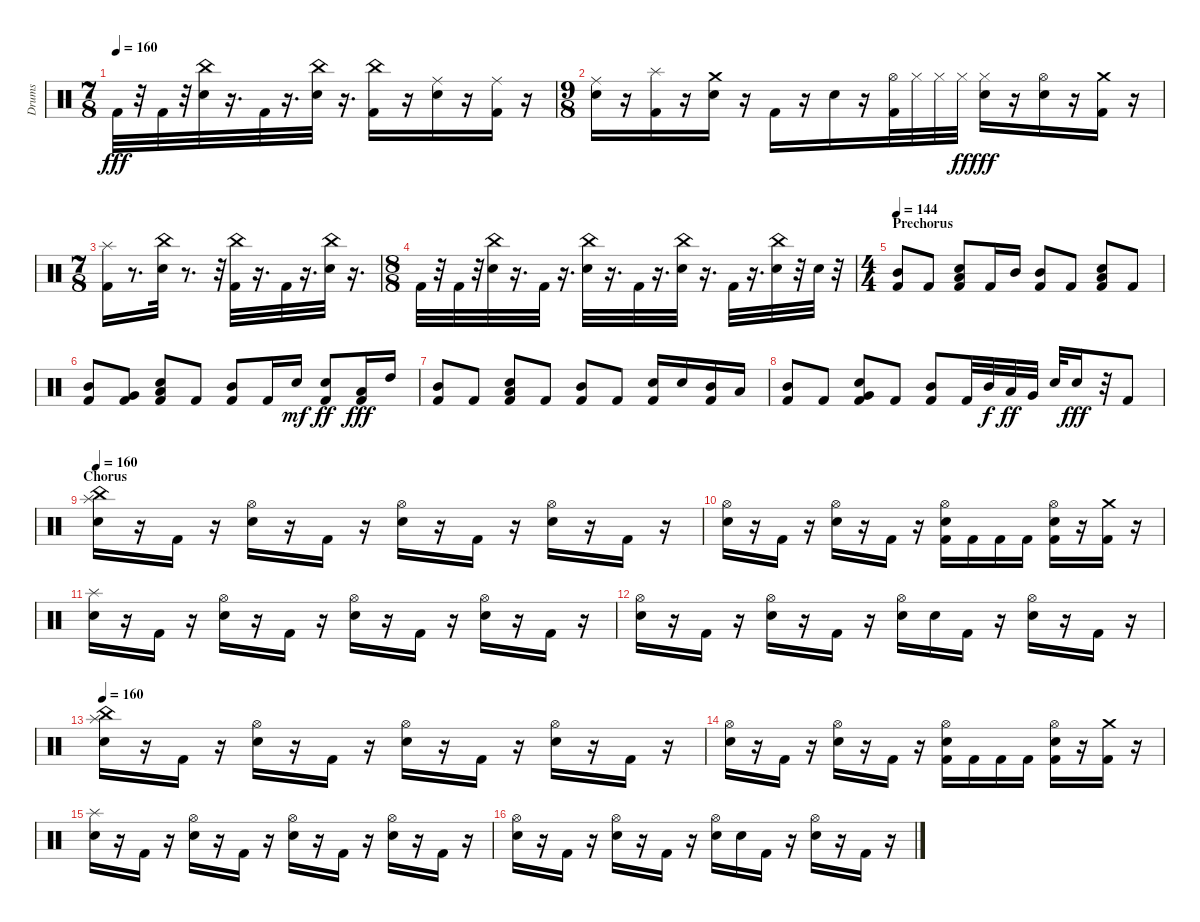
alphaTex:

\track ("Drums" "Drums") {instrument percussion}
\staff {score}
\articulation defaults
\ts (7 8)
\tempo 160
\clef neutral
\ks c "Kick (hit) 2".32{dy fff}
r.32 "Kick (hit) 2".32 r.32 ("Snare (hit) 2" "China (hit)").32 r.16{d} "Kick (hit) 2".32 r.16{d} ("Snare (hit) 2" "China (hit)").32 r.16{d} ("Kick (hit) 2" "China (hit)").16 r.16 ("Snare (hit) 2" "Ride (middle)").16 r.16 ("Kick (hit) 2" "Ride (middle)").16 r.16 |
\ts (9 8)
("Snare (hit) 2" "Ride (middle)").16 r.16 ("Kick (hit) 2" "Splash (hit)").16 r.16 ("Snare (hit) 2" "Crash medium (hit)").16 r.16 "Kick (hit) 2".16 r.16 "Snare (hit) 2".16 r.16 ("Kick (hit) 2" "Hi-Hat (open)").32 "Hi-Hat (closed)".32 "Hi-Hat (closed)".32 "Hi-Hat (closed)".32{dy ff} ("Snare (hit) 2" "Hi-Hat (closed)").16{dy fff} r.16 ("Snare (hit) 2" "Hi-Hat (open)").16 r.16 ("Kick (hit) 2" "Crash medium (hit)").16 r.16 |
\ts (7 8)
("Kick (hit) 2" "Splash (hit)").16 r.8{d} ("Snare (hit) 2" "China (hit)").32 r.8{d} r.32 ("Kick (hit) 2" "China (hit)").32 r.16{d} "Kick (hit) 2".32 r.16{d} ("Snare (hit) 2" "China (hit)").32 r.16{d} |
\ts (8 8)
"Kick (hit) 2".32 r.32 "Kick (hit) 2".32 r.32 ("Snare (hit) 2" "China (hit)").32 r.16{d} "Kick (hit) 2".32 r.16{d} ("Snare (hit) 2" "China (hit)").32 r.16{d} "Kick (hit) 2".32 r.16{d} ("Snare (hit) 2" "China (hit)").32 r.16{d} "Kick (hit) 2".32 r.16{d} ("Snare (hit) 2" "China (hit)").32 r.32 "Snare (hit) 2".32 r.32 |
\ts (4 4)
\section ("" "Prechorus")
\tempo 144
("Kick (hit) 2" "Mid Tom (hit)").8 "Kick (hit) 2".8 ("Kick (hit) 2" "Snare (hit) 2" "Low Tom (hit)").8 "Kick (hit) 2".16 "Mid Tom (hit)".16 ("Kick (hit) 2" "Mid Tom (hit)").8 "Kick (hit) 2".8 ("Kick (hit) 2" "Snare (hit) 2" "Low Tom (hit)").8 "Kick (hit) 2".8 |
("Kick (hit) 2" "Mid Tom (hit)").8 ("Kick (hit) 2" "Very Low Tom (hit)").8 ("Kick (hit) 2" "Snare (hit) 2" "Low Tom (hit)").8 "Kick (hit) 2".8 ("Kick (hit) 2" "Mid Tom (hit)").8 "Kick (hit) 2".16 "Snare (hit) 2".16{dy mf} ("Kick (hit) 2" "Snare (hit) 2").8{dy ff} ("Kick (hit) 2" "Low Tom (hit)").16{dy fff} "High Tom (hit)".16 |
("Kick (hit) 2" "Mid Tom (hit)").8 "Kick (hit) 2".8 ("Kick (hit) 2" "Snare (hit) 2" "Low Tom (hit)").8 "Kick (hit) 2".8 ("Kick (hit) 2" "Mid Tom (hit)").8 "Kick (hit) 2".8 ("Kick (hit) 2" "Snare (hit) 2").16 "Snare (hit) 2".16 ("Kick (hit) 2" "Mid Tom (hit)").16 "Low Tom (hit)".16 |
("Kick (hit) 2" "Mid Tom (hit)").8 "Kick (hit) 2".8 ("Kick (hit) 2" "Snare (hit) 2" "Very Low Tom (hit)").8 "Kick (hit) 2".8 ("Kick (hit) 2" "Mid Tom (hit)").8 "Kick (hit) 2".32 "Mid Tom (hit)".32{dy f} "Low Tom (hit)".32{dy ff} "Very Low Tom (hit)".32 "Snare (hit) 2".32 "Snare (hit) 2".16{dy fff} r.32 "Kick (hit) 2".8 |
\section ("" "Chorus")
\tempo 160
("Snare (hit) 2" "Splash (hit)" "China (hit)").16 r.16 "Kick (hit) 2".16 r.16 ("Snare (hit) 2" "Hi-Hat (open)").16 r.16 "Kick (hit) 2".16 r.16 ("Snare (hit) 2" "Hi-Hat (open)").16 r.16 "Kick (hit) 2".16 r.16 ("Snare (hit) 2" "Hi-Hat (open)").16 r.16 "Kick (hit) 2".16 r.16 |
("Snare (hit) 2" "Hi-Hat (open)").16 r.16 "Kick (hit) 2".16 r.16 ("Snare (hit) 2" "Hi-Hat (open)").16 r.16 "Kick (hit) 2".16 r.16 ("Kick (hit) 2" "Snare (hit) 2" "Hi-Hat (open)").16 "Kick (hit) 2".16 "Kick (hit) 2".16 "Kick (hit) 2".16 ("Kick (hit) 2" "Snare (hit) 2" "Hi-Hat (open)").16 r.16 ("Kick (hit) 2" "Crash medium (hit)").16 r.16 |
("Snare (hit) 2" "Splash (hit)").16 r.16 "Kick (hit) 2".16 r.16 ("Snare (hit) 2" "Hi-Hat (open)").16 r.16 "Kick (hit) 2".16 r.16 ("Snare (hit) 2" "Hi-Hat (open)").16 r.16 "Kick (hit) 2".16 r.16 ("Snare (hit) 2" "Hi-Hat (open)").16 r.16 "Kick (hit) 2".16 r.16 |
("Snare (hit) 2" "Hi-Hat (open)").16 r.16 "Kick (hit) 2".16 r.16 ("Snare (hit) 2" "Hi-Hat (open)").16 r.16 "Kick (hit) 2".16 r.16 ("Snare (hit) 2" "Hi-Hat (open)").16 "Snare (hit) 2".16 "Kick (hit) 2".16 r.16 ("Snare (hit) 2" "Hi-Hat (open)").16 r.16 "Kick (hit) 2".16 r.16 |
\tempo 160
("Snare (hit) 2" "Splash (hit)" "China (hit)").16 r.16 "Kick (hit) 2".16 r.16 ("Snare (hit) 2" "Hi-Hat (open)").16 r.16 "Kick (hit) 2".16 r.16 ("Snare (hit) 2" "Hi-Hat (open)").16 r.16 "Kick (hit) 2".16 r.16 ("Snare (hit) 2" "Hi-Hat (open)").16 r.16 "Kick (hit) 2".16 r.16 |
("Snare (hit) 2" "Hi-Hat (open)").16 r.16 "Kick (hit) 2".16 r.16 ("Snare (hit) 2" "Hi-Hat (open)").16 r.16 "Kick (hit) 2".16 r.16 ("Kick (hit) 2" "Snare (hit) 2" "Hi-Hat (open)").16 "Kick (hit) 2".16 "Kick (hit) 2".16 "Kick (hit) 2".16 ("Kick (hit) 2" "Snare (hit) 2" "Hi-Hat (open)").16 r.16 ("Kick (hit) 2" "Crash medium (hit)").16 r.16 |
("Snare (hit) 2" "Splash (hit)").16 r.16 "Kick (hit) 2".16 r.16 ("Snare (hit) 2" "Hi-Hat (open)").16 r.16 "Kick (hit) 2".16 r.16 ("Snare (hit) 2" "Hi-Hat (open)").16 r.16 "Kick (hit) 2".16 r.16 ("Snare (hit) 2" "Hi-Hat (open)").16 r.16 "Kick (hit) 2".16 r.16 |
("Snare (hit) 2" "Hi-Hat (open)").16 r.16 "Kick (hit) 2".16 r.16 ("Snare (hit) 2" "Hi-Hat (open)").16 r.16 "Kick (hit) 2".16 r.16 ("Snare (hit) 2" "Hi-Hat (open)").16 "Snare (hit) 2".16 "Kick (hit) 2".16 r.16 ("Snare (hit) 2" "Hi-Hat (open)").16 r.16 "Kick (hit) 2".16 r.16
